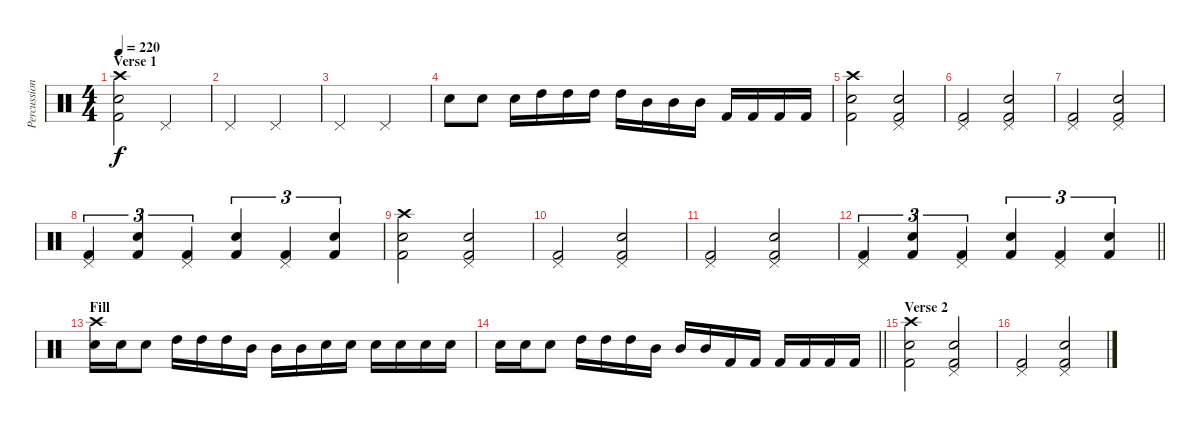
\track ("Percussion" "Percussion") {instrument percussion}
\staff {score}
\articulation defaults
\ts (4 4)
\section ("" "Verse 1")
\tempo 220
\clef neutral
\ks c
("Crash high (hit)" "Snare (hit) 2" "Kick (hit) 2").2{dy f} "Pedal Hi-Hat (hit)".2 |
"Pedal Hi-Hat (hit)".2 "Pedal Hi-Hat (hit)".2 |
"Pedal Hi-Hat (hit)".2 "Pedal Hi-Hat (hit)".2 |
"Snare (hit) 2".8 "Snare (hit) 2".8 "Snare (hit) 2".16 "High Tom (hit)".16 "High Tom (hit)".16 "High Tom (hit)".16 "High Tom (hit)".16 "Mid Tom (hit)".16 "Mid Tom (hit)".16 "Mid Tom (hit)".16 "Kick (hit) 2".16 "Kick (hit) 2".16 "Kick (hit) 2".16 "Kick (hit) 2".16 |
("Crash high (hit)" "Snare (hit) 2" "Kick (hit) 2").2 ("Snare (hit) 2" "Pedal Hi-Hat (hit)" "Kick (hit) 2").2 |
("Pedal Hi-Hat (hit)" "Kick (hit) 2").2 ("Snare (hit) 2" "Pedal Hi-Hat (hit)" "Kick (hit) 2").2 |
("Pedal Hi-Hat (hit)" "Kick (hit) 2").2 ("Snare (hit) 2" "Pedal Hi-Hat (hit)" "Kick (hit) 2").2 |
("Pedal Hi-Hat (hit)" "Kick (hit) 2").4{tu (3 2)} ("Snare (hit) 2" "Kick (hit) 2").4{tu (3 2)} ("Pedal Hi-Hat (hit)" "Kick (hit) 2").4{tu (3 2)} ("Snare (hit) 2" "Kick (hit) 2").4{tu (3 2)} ("Pedal Hi-Hat (hit)" "Kick (hit) 2").4{tu (3 2)} ("Snare (hit) 2" "Kick (hit) 2").4{tu (3 2)} |
("Crash high (hit)" "Snare (hit) 2" "Kick (hit) 2").2 ("Snare (hit) 2" "Pedal Hi-Hat (hit)" "Kick (hit) 2").2 |
("Pedal Hi-Hat (hit)" "Kick (hit) 2").2 ("Snare (hit) 2" "Pedal Hi-Hat (hit)" "Kick (hit) 2").2 |
("Pedal Hi-Hat (hit)" "Kick (hit) 2").2 ("Snare (hit) 2" "Pedal Hi-Hat (hit)" "Kick (hit) 2").2 |
\barLineRight lightlight
("Pedal Hi-Hat (hit)" "Kick (hit) 2").4{tu (3 2)} ("Snare (hit) 2" "Kick (hit) 2").4{tu (3 2)} ("Pedal Hi-Hat (hit)" "Kick (hit) 2").4{tu (3 2)} ("Snare (hit) 2" "Kick (hit) 2").4{tu (3 2)} ("Pedal Hi-Hat (hit)" "Kick (hit) 2").4{tu (3 2)} ("Snare (hit) 2" "Kick (hit) 2").4{tu (3 2)} |
\section ("" "Fill")
("Crash high (hit)" "Snare (hit) 2").16 "Snare (hit) 2".16 "Snare (hit) 2".8 "High Tom (hit)".16 "High Tom (hit)".16 "High Tom (hit)".16 "Mid Tom (hit)".16 "Mid Tom (hit)".16 "Mid Tom (hit)".16 "Snare (hit) 2".16 "Snare (hit) 2".16 "Snare (hit) 2".16 "Snare (hit) 2".16 "Snare (hit) 2".16 "Snare (hit) 2".16 |
\barLineRight lightlight "Snare (hit) 2".16 "Snare (hit) 2".16 "Snare (hit) 2".8 "High Tom (hit)".16 "High Tom (hit)".16 "High Tom (hit)".16 "Mid Tom (hit)".16 "Mid Tom (hit)".16 "Mid Tom (hit)".16 "Kick (hit) 2".16 "Kick (hit) 2".16 "Kick (hit) 2".16 "Kick (hit) 2".16 "Kick (hit) 2".16 "Kick (hit) 2".16
|
\section ("" "Verse 2")
("Crash high (hit)" "Snare (hit) 2" "Kick (hit) 2").2 ("Snare (hit) 2" "Pedal Hi-Hat (hit)" "Kick (hit) 2").2 |
("Pedal Hi-Hat (hit)" "Kick (hit) 2").2 ("Snare (hit) 2" "Pedal Hi-Hat (hit)" "Kick (hit) 2").2
